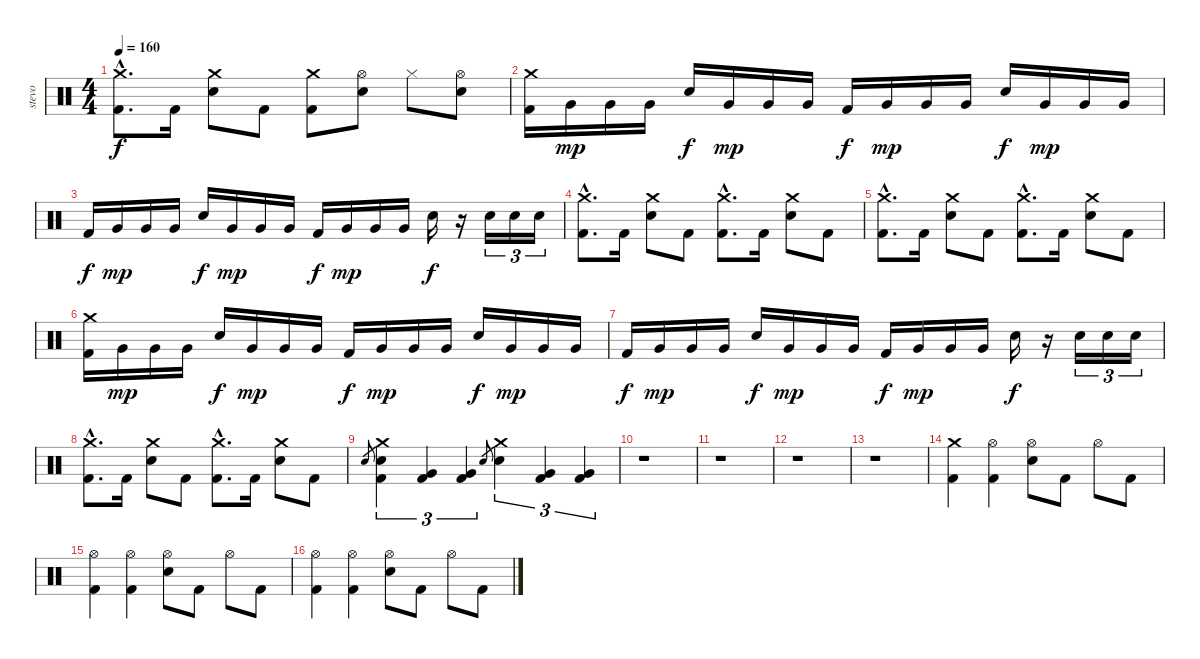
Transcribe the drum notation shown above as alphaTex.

\track ("stevo" "stevo") {instrument percussion}
\staff {score}
\articulation defaults
\ts (4 4)
\tempo 160
\clef neutral
\ks c
("Crash medium (hit)"{hac} "Kick (hit) 2"{hac}).8{d dy f} "Kick (hit) 2".16 ("Crash medium (hit)" "Electric Snare (hit)").8 "Kick (hit) 2".8 ("Crash medium (hit)" "Kick (hit) 2").8 ("Hi-Hat (open)" "Electric Snare (hit)").8 "Hi-Hat (closed)".8 ("Hi-Hat (open)" "Electric Snare (hit)").8 |
("Crash medium (hit)" "Kick (hit) 2").16 "Very Low Tom (hit)".16{dy mp} "Very Low Tom (hit)".16 "Very Low Tom (hit)".16 "Electric Snare (hit)".16{dy f} "Very Low Tom (hit)".16{dy mp} "Very Low Tom (hit)".16 "Very Low Tom (hit)".16 "Kick (hit) 2".16{dy f} "Very Low Tom (hit)".16{dy mp} "Very Low Tom (hit)".16 "Very Low Tom (hit)".16 "Electric Snare (hit)".16{dy f} "Very Low Tom (hit)".16{dy mp} "Very Low Tom (hit)".16 "Very Low Tom (hit)".16 |
"Kick (hit) 2".16{dy f} "Very Low Tom (hit)".16{dy mp} "Very Low Tom (hit)".16 "Very Low Tom (hit)".16 "Electric Snare (hit)".16{dy f} "Very Low Tom (hit)".16{dy mp} "Very Low Tom (hit)".16 "Very Low Tom (hit)".16 "Kick (hit) 2".16{dy f} "Very Low Tom (hit)".16{dy mp} "Very Low Tom (hit)".16 "Very Low Tom (hit)".16 "Electric Snare (hit)".16{dy f} r.16 "Electric Snare (hit)".16{tu (3 2)} "Electric Snare (hit)".16{tu (3 2)} "Electric Snare (hit)".16{tu (3 2)} |
("Crash medium (hit)"{hac} "Kick (hit) 2"{hac}).8{d} "Kick (hit) 2".16 ("Crash medium (hit)" "Electric Snare (hit)").8 "Kick (hit) 2".8 ("Crash medium (hit)"{hac} "Kick (hit) 2"{hac}).8{d} "Kick (hit) 2".16 ("Crash medium (hit)" "Electric Snare (hit)").8 "Kick (hit) 2".8 |
("Crash medium (hit)"{hac} "Kick (hit) 2"{hac}).8{d} "Kick (hit) 2".16 ("Crash medium (hit)" "Electric Snare (hit)").8 "Kick (hit) 2".8 ("Crash medium (hit)"{hac} "Kick (hit) 2"{hac}).8{d} "Kick (hit) 2".16 ("Crash medium (hit)" "Electric Snare (hit)").8 "Kick (hit) 2".8 |
("Crash medium (hit)" "Kick (hit) 2").16 "Very Low Tom (hit)".16{dy mp} "Very Low Tom (hit)".16 "Very Low Tom (hit)".16 "Electric Snare (hit)".16{dy f} "Very Low Tom (hit)".16{dy mp} "Very Low Tom (hit)".16 "Very Low Tom (hit)".16 "Kick (hit) 2".16{dy f} "Very Low Tom (hit)".16{dy mp} "Very Low Tom (hit)".16 "Very Low Tom (hit)".16 "Electric Snare (hit)".16{dy f} "Very Low Tom (hit)".16{dy mp} "Very Low Tom (hit)".16 "Very Low Tom (hit)".16 |
"Kick (hit) 2".16{dy f} "Very Low Tom (hit)".16{dy mp} "Very Low Tom (hit)".16 "Very Low Tom (hit)".16 "Electric Snare (hit)".16{dy f} "Very Low Tom (hit)".16{dy mp} "Very Low Tom (hit)".16 "Very Low Tom (hit)".16 "Kick (hit) 2".16{dy f} "Very Low Tom (hit)".16{dy mp} "Very Low Tom (hit)".16 "Very Low Tom (hit)".16 "Electric Snare (hit)".16{dy f} r.16 "Electric Snare (hit)".16{tu (3 2)} "Electric Snare (hit)".16{tu (3 2)} "Electric Snare (hit)".16{tu (3 2)} |
("Crash medium (hit)"{hac} "Kick (hit) 2"{hac}).8{d} "Kick (hit) 2".16 ("Crash medium (hit)" "Electric Snare (hit)").8 "Kick (hit) 2".8 ("Crash medium (hit)"{hac} "Kick (hit) 2"{hac}).8{d} "Kick (hit) 2".16 ("Crash medium (hit)" "Electric Snare (hit)").8 "Kick (hit) 2".8 |
"Electric Snare (hit)".8{gr} ("Crash medium (hit)" "Electric Snare (hit)" "Kick (hit) 2").4{tu (3 2)} ("Very Low Tom (hit)" "Kick (hit) 2").4{tu (3 2)} ("Very Low Tom (hit)" "Kick (hit) 2").4{tu (3 2)} "Electric Snare (hit)".8{gr} ("Crash medium (hit)" "Electric Snare (hit)").4{tu (3 2)} ("Very Low Tom (hit)" "Kick (hit) 2").4{tu (3 2)} ("Very Low Tom (hit)" "Kick (hit) 2").4{tu (3 2)} |
r.1 |
r.1 |
r.1 |
r.1 |
("Crash medium (hit)" "Kick (hit) 2").4 ("Hi-Hat (open)" "Kick (hit) 2").4 ("Electric Snare (hit)" "Hi-Hat (open)").8 "Kick (hit) 2".8 "Hi-Hat (open)".8 "Kick (hit) 2".8 |
("Hi-Hat (open)" "Kick (hit) 2").4 ("Hi-Hat (open)" "Kick (hit) 2").4 ("Electric Snare (hit)" "Hi-Hat (open)").8 "Kick (hit) 2".8 "Hi-Hat (open)".8 "Kick (hit) 2".8 |
("Hi-Hat (open)" "Kick (hit) 2").4 ("Hi-Hat (open)" "Kick (hit) 2").4 ("Electric Snare (hit)" "Hi-Hat (open)").8 "Kick (hit) 2".8 "Hi-Hat (open)".8 "Kick (hit) 2".8
